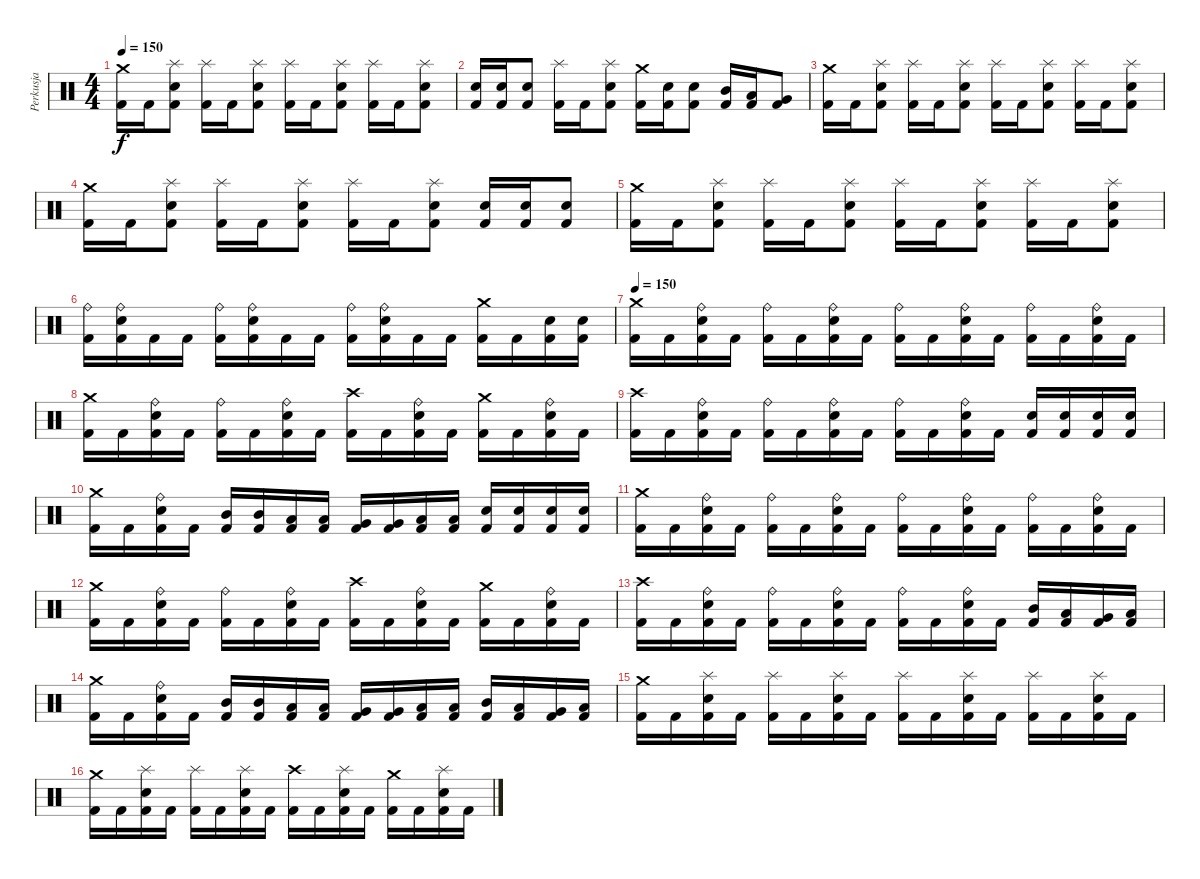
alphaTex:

\track ("Perkusja" "Perkusja") {instrument percussion}
\staff {score}
\articulation defaults
\ts (4 4)
\tempo 150
\clef neutral
\ks c
("Crash medium (hit)" "Kick (hit) 2").16{dy f} "Kick (hit) 2".16 ("Splash (hit)" "Electric Snare (hit)" "Kick (hit) 2").8 ("Splash (hit)" "Kick (hit) 2").16 "Kick (hit) 2".16 ("Splash (hit)" "Electric Snare (hit)" "Kick (hit) 2").8 ("Splash (hit)" "Kick (hit) 2").16 "Kick (hit) 2".16 ("Splash (hit)" "Electric Snare (hit)" "Kick (hit) 2").8 ("Splash (hit)" "Kick (hit) 2").16 "Kick (hit) 2".16 ("Splash (hit)" "Electric Snare (hit)" "Kick (hit) 2").8 |
("Electric Snare (hit)" "Kick (hit) 2").16 ("Electric Snare (hit)" "Kick (hit) 2").16 ("Electric Snare (hit)" "Kick (hit) 2").8 ("Splash (hit)" "Kick (hit) 2").16 "Kick (hit) 2".16 ("Splash (hit)" "Electric Snare (hit)" "Kick (hit) 2").8 ("Crash medium (hit)" "Kick (hit) 2").16 ("Electric Snare (hit)" "Kick (hit) 2").16 ("Electric Snare (hit)" "Kick (hit) 2").8 ("Mid Tom (hit)" "Kick (hit) 2").16 ("Low Tom (hit)" "Kick (hit) 2").16 ("Very Low Tom (hit)" "Kick (hit) 2").8 |
("Crash medium (hit)" "Kick (hit) 2").16 "Kick (hit) 2".16 ("Splash (hit)" "Electric Snare (hit)" "Kick (hit) 2").8 ("Splash (hit)" "Kick (hit) 2").16 "Kick (hit) 2".16 ("Splash (hit)" "Electric Snare (hit)" "Kick (hit) 2").8 ("Splash (hit)" "Kick (hit) 2").16 "Kick (hit) 2".16 ("Splash (hit)" "Electric Snare (hit)" "Kick (hit) 2").8 ("Splash (hit)" "Kick (hit) 2").16 "Kick (hit) 2".16 ("Splash (hit)" "Electric Snare (hit)" "Kick (hit) 2").8 |
("Crash medium (hit)" "Kick (hit) 2").16 "Kick (hit) 2".16 ("Splash (hit)" "Electric Snare (hit)" "Kick (hit) 2").8 ("Splash (hit)" "Kick (hit) 2").16 "Kick (hit) 2".16 ("Splash (hit)" "Electric Snare (hit)" "Kick (hit) 2").8 ("Splash (hit)" "Kick (hit) 2").16 "Kick (hit) 2".16 ("Splash (hit)" "Electric Snare (hit)" "Kick (hit) 2").8 ("Electric Snare (hit)" "Kick (hit) 2").16 ("Electric Snare (hit)" "Kick (hit) 2").16 ("Electric Snare (hit)" "Kick (hit) 2").8 |
("Crash medium (hit)" "Kick (hit) 2").16 "Kick (hit) 2".16 ("Splash (hit)" "Electric Snare (hit)" "Kick (hit) 2").8 ("Splash (hit)" "Kick (hit) 2").16 "Kick (hit) 2".16 ("Splash (hit)" "Electric Snare (hit)" "Kick (hit) 2").8 ("Splash (hit)" "Kick (hit) 2").16 "Kick (hit) 2".16 ("Splash (hit)" "Electric Snare (hit)" "Kick (hit) 2").8 ("Splash (hit)" "Kick (hit) 2").16 "Kick (hit) 2".16 ("Splash (hit)" "Electric Snare (hit)" "Kick (hit) 2").8 |
("Ride (bell)" "Kick (hit) 2").16 ("Ride (bell)" "Electric Snare (hit)" "Kick (hit) 2").16 "Kick (hit) 2".16 "Kick (hit) 2".16 ("Ride (bell)" "Kick (hit) 2").16 ("Ride (bell)" "Electric Snare (hit)" "Kick (hit) 2").16 "Kick (hit) 2".16 "Kick (hit) 2".16 ("Ride (bell)" "Kick (hit) 2").16 ("Ride (bell)" "Electric Snare (hit)" "Kick (hit) 2").16 "Kick (hit) 2".16 "Kick (hit) 2".16 ("Crash medium (hit)" "Kick (hit) 2").16 "Kick (hit) 2".16 ("Electric Snare (hit)" "Kick (hit) 2").16 ("Electric Snare (hit)" "Kick (hit) 2").16 |
\tempo 150
("Crash medium (hit)" "Kick (hit) 2").16 "Kick (hit) 2".16 ("Ride (bell)" "Electric Snare (hit)" "Kick (hit) 2").16 "Kick (hit) 2".16 ("Ride (bell)" "Kick (hit) 2").16 "Kick (hit) 2".16 ("Ride (bell)" "Electric Snare (hit)" "Kick (hit) 2").16 "Kick (hit) 2".16 ("Ride (bell)" "Kick (hit) 2").16 "Kick (hit) 2".16 ("Ride (bell)" "Electric Snare (hit)" "Kick (hit) 2").16 "Kick (hit) 2".16 ("Ride (bell)" "Kick (hit) 2").16 "Kick (hit) 2".16 ("Ride (bell)" "Electric Snare (hit)" "Kick (hit) 2").16 "Kick (hit) 2".16 |
("Crash medium (hit)" "Kick (hit) 2").16 "Kick (hit) 2".16 ("Ride (bell)" "Electric Snare (hit)" "Kick (hit) 2").16 "Kick (hit) 2".16 ("Ride (bell)" "Kick (hit) 2").16 "Kick (hit) 2".16 ("Ride (bell)" "Electric Snare (hit)" "Kick (hit) 2").16 "Kick (hit) 2".16 ("Crash high (hit)" "Kick (hit) 2").16 "Kick (hit) 2".16 ("Ride (bell)" "Electric Snare (hit)" "Kick (hit) 2").16 "Kick (hit) 2".16 ("Crash medium (hit)" "Kick (hit) 2").16 "Kick (hit) 2".16 ("Ride (bell)" "Electric Snare (hit)" "Kick (hit) 2").16 "Kick (hit) 2".16 |
("Crash high (hit)" "Kick (hit) 2").16 "Kick (hit) 2".16 ("Ride (bell)" "Electric Snare (hit)" "Kick (hit) 2").16 "Kick (hit) 2".16 ("Ride (bell)" "Kick (hit) 2").16 "Kick (hit) 2".16 ("Ride (bell)" "Electric Snare (hit)" "Kick (hit) 2").16 "Kick (hit) 2".16 ("Ride (bell)" "Kick (hit) 2").16 "Kick (hit) 2".16 ("Ride (bell)" "Electric Snare (hit)" "Kick (hit) 2").16 "Kick (hit) 2".16 ("Electric Snare (hit)" "Kick (hit) 2").16 ("Electric Snare (hit)" "Kick (hit) 2").16 ("Electric Snare (hit)" "Kick (hit) 2").16 ("Electric Snare (hit)" "Kick (hit) 2").16 |
("Crash medium (hit)" "Kick (hit) 2").16 "Kick (hit) 2".16 ("Ride (bell)" "Electric Snare (hit)" "Kick (hit) 2").16 "Kick (hit) 2".16 ("Mid Tom (hit)" "Kick (hit) 2").16 ("Mid Tom (hit)" "Kick (hit) 2").16 ("Low Tom (hit)" "Kick (hit) 2").16 ("Low Tom (hit)" "Kick (hit) 2").16 ("Very Low Tom (hit)" "Kick (hit) 2").16 ("Very Low Tom (hit)" "Kick (hit) 2").16 ("Low Floor Tom (hit)" "Kick (hit) 2").16 ("Low Floor Tom (hit)" "Kick (hit) 2").16 ("Snare (hit) 2" "Kick (hit) 2").16 ("Snare (hit) 2" "Kick (hit) 2").16 ("Snare (hit) 2" "Kick (hit) 2").16 ("Snare (hit) 2" "Kick (hit) 2").16 |
("Crash medium (hit)" "Kick (hit) 2").16 "Kick (hit) 2".16 ("Ride (bell)" "Electric Snare (hit)" "Kick (hit) 2").16 "Kick (hit) 2".16 ("Ride (bell)" "Kick (hit) 2").16 "Kick (hit) 2".16 ("Ride (bell)" "Electric Snare (hit)" "Kick (hit) 2").16 "Kick (hit) 2".16 ("Ride (bell)" "Kick (hit) 2").16 "Kick (hit) 2".16 ("Ride (bell)" "Electric Snare (hit)" "Kick (hit) 2").16 "Kick (hit) 2".16 ("Ride (bell)" "Kick (hit) 2").16 "Kick (hit) 2".16 ("Ride (bell)" "Electric Snare (hit)" "Kick (hit) 2").16 "Kick (hit) 2".16 |
("Crash medium (hit)" "Kick (hit) 2").16 "Kick (hit) 2".16 ("Ride (bell)" "Electric Snare (hit)" "Kick (hit) 2").16 "Kick (hit) 2".16 ("Ride (bell)" "Kick (hit) 2").16 "Kick (hit) 2".16 ("Ride (bell)" "Electric Snare (hit)" "Kick (hit) 2").16 "Kick (hit) 2".16 ("Crash high (hit)" "Kick (hit) 2").16 "Kick (hit) 2".16 ("Ride (bell)" "Electric Snare (hit)" "Kick (hit) 2").16 "Kick (hit) 2".16 ("Crash medium (hit)" "Kick (hit) 2").16 "Kick (hit) 2".16 ("Ride (bell)" "Electric Snare (hit)" "Kick (hit) 2").16 "Kick (hit) 2".16 |
("Crash high (hit)" "Kick (hit) 2").16 "Kick (hit) 2".16 ("Ride (bell)" "Electric Snare (hit)" "Kick (hit) 2").16 "Kick (hit) 2".16 ("Ride (bell)" "Kick (hit) 2").16 "Kick (hit) 2".16 ("Ride (bell)" "Electric Snare (hit)" "Kick (hit) 2").16 "Kick (hit) 2".16 ("Ride (bell)" "Kick (hit) 2").16 "Kick (hit) 2".16 ("Ride (bell)" "Electric Snare (hit)" "Kick (hit) 2").16 "Kick (hit) 2".16 ("Mid Tom (hit)" "Kick (hit) 2").16 ("Low Tom (hit)" "Kick (hit) 2").16 ("Very Low Tom (hit)" "Kick (hit) 2").16 ("Low Floor Tom (hit)" "Kick (hit) 2").16 |
("Crash medium (hit)" "Kick (hit) 2").16 "Kick (hit) 2".16 ("Ride (bell)" "Electric Snare (hit)" "Kick (hit) 2").16 "Kick (hit) 2".16 ("Mid Tom (hit)" "Kick (hit) 2").16 ("Mid Tom (hit)" "Kick (hit) 2").16 ("Low Tom (hit)" "Kick (hit) 2").16 ("Low Tom (hit)" "Kick (hit) 2").16 ("Very Low Tom (hit)" "Kick (hit) 2").16 ("Very Low Tom (hit)" "Kick (hit) 2").16 ("Low Floor Tom (hit)" "Kick (hit) 2").16 ("Low Floor Tom (hit)" "Kick (hit) 2").16 ("Mid Tom (hit)" "Kick (hit) 2").16 ("Low Tom (hit)" "Kick (hit) 2").16 ("Very Low Tom (hit)" "Kick (hit) 2").16 ("Low Floor Tom (hit)" "Kick (hit) 2").16 |
("Crash medium (hit)" "Kick (hit) 2").16 "Kick (hit) 2".16 ("Splash (hit)" "Electric Snare (hit)" "Kick (hit) 2").16 "Kick (hit) 2".16 ("Splash (hit)" "Kick (hit) 2").16 "Kick (hit) 2".16 ("Splash (hit)" "Electric Snare (hit)" "Kick (hit) 2").16 "Kick (hit) 2".16 ("Splash (hit)" "Kick (hit) 2").16 "Kick (hit) 2".16 ("Splash (hit)" "Electric Snare (hit)" "Kick (hit) 2").16 "Kick (hit) 2".16 ("Splash (hit)" "Kick (hit) 2").16 "Kick (hit) 2".16 ("Splash (hit)" "Electric Snare (hit)" "Kick (hit) 2").16 "Kick (hit) 2".16 |
("Crash medium (hit)" "Kick (hit) 2").16 "Kick (hit) 2".16 ("Splash (hit)" "Electric Snare (hit)" "Kick (hit) 2").16 "Kick (hit) 2".16 ("Splash (hit)" "Kick (hit) 2").16 "Kick (hit) 2".16 ("Splash (hit)" "Electric Snare (hit)" "Kick (hit) 2").16 "Kick (hit) 2".16 ("Crash high (hit)" "Kick (hit) 2").16 "Kick (hit) 2".16 ("Splash (hit)" "Electric Snare (hit)" "Kick (hit) 2").16 "Kick (hit) 2".16 ("Crash medium (hit)" "Kick (hit) 2").16 "Kick (hit) 2".16 ("Splash (hit)" "Electric Snare (hit)" "Kick (hit) 2").16 "Kick (hit) 2".16
